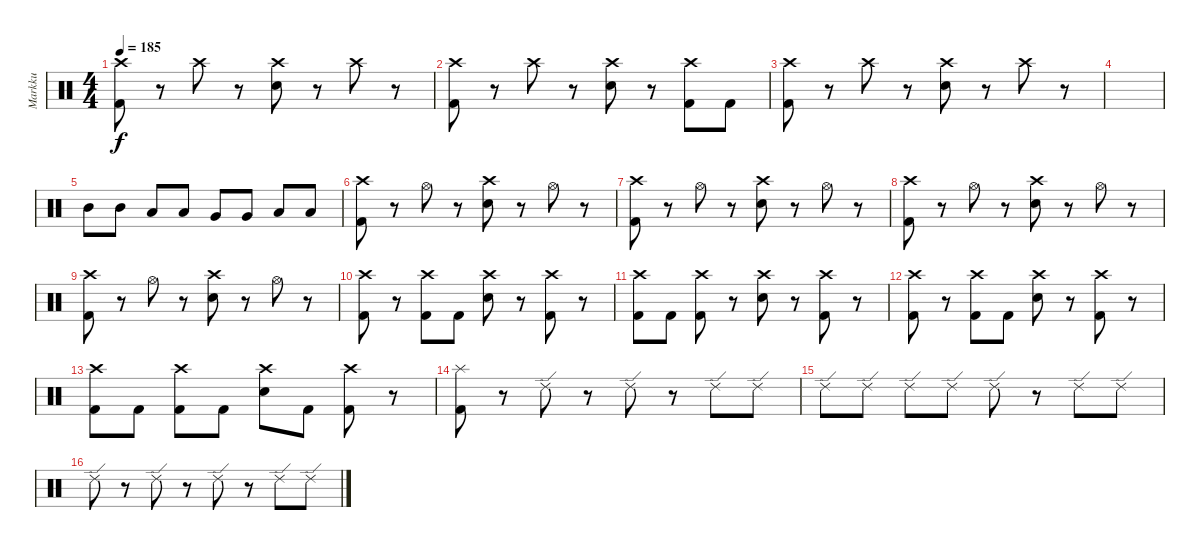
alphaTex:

\track ("Markku" "Markku") {instrument percussion}
\staff {score}
\articulation defaults
\ts (4 4)
\tempo 185
\clef neutral
\ks c
("Kick (hit) 2" "Crash high (hit)").8{dy f} r.8 "Crash high (hit)".8 r.8 ("Snare (hit) 2" "Crash high (hit)").8 r.8 "Crash high (hit)".8 r.8 |
("Kick (hit) 2" "Crash high (hit)").8 r.8 "Crash high (hit)".8 r.8 ("Snare (hit) 2" "Crash high (hit)").8 r.8 ("Kick (hit) 2" "Crash high (hit)").8 "Kick (hit) 2".8 |
("Kick (hit) 2" "Crash high (hit)").8 r.8 "Crash high (hit)".8 r.8 ("Snare (hit) 2" "Crash high (hit)").8 r.8 "Crash high (hit)".8 r.8 |
|
"Mid Tom (hit)".8 "Mid Tom (hit)".8 "Low Tom (hit)".8 "Low Tom (hit)".8 "Very Low Tom (hit)".8 "Very Low Tom (hit)".8 "Low Floor Tom (hit)".8 "Low Floor Tom (hit)".8 |
("Kick (hit) 2" "Crash high (hit)").8 r.8 "Hi-Hat (open)".8 r.8 ("Snare (hit) 2" "Crash high (hit)").8 r.8 "Hi-Hat (open)".8 r.8 |
("Kick (hit) 2" "Crash high (hit)").8 r.8 "Hi-Hat (open)".8 r.8 ("Snare (hit) 2" "Crash high (hit)").8 r.8 "Hi-Hat (open)".8 r.8 |
("Kick (hit) 2" "Crash high (hit)").8 r.8 "Hi-Hat (open)".8 r.8 ("Snare (hit) 2" "Crash high (hit)").8 r.8 "Hi-Hat (open)".8 r.8 |
("Kick (hit) 2" "Crash high (hit)").8 r.8 "Hi-Hat (open)".8 r.8 ("Snare (hit) 2" "Crash high (hit)").8 r.8 "Hi-Hat (open)".8 r.8 |
("Kick (hit) 2" "Crash high (hit)").8 r.8 ("Kick (hit) 2" "Crash high (hit)").8 "Kick (hit) 2".8 ("Snare (hit) 2" "Crash high (hit)").8 r.8 ("Kick (hit) 2" "Crash high (hit)").8 r.8 |
("Kick (hit) 2" "Crash high (hit)").8 "Kick (hit) 2".8 ("Kick (hit) 2" "Crash high (hit)").8 r.8 ("Snare (hit) 2" "Crash high (hit)").8 r.8 ("Kick (hit) 2" "Crash high (hit)").8 r.8 |
("Kick (hit) 2" "Crash high (hit)").8 r.8 ("Kick (hit) 2" "Crash high (hit)").8 "Kick (hit) 2".8 ("Snare (hit) 2" "Crash high (hit)").8 r.8 ("Kick (hit) 2" "Crash high (hit)").8 r.8 |
("Kick (hit) 2" "Crash high (hit)").8 "Kick (hit) 2".8 ("Kick (hit) 2" "Crash high (hit)").8 "Kick (hit) 2".8 ("Snare (hit) 2" "Crash high (hit)").8 "Kick (hit) 2".8 ("Kick (hit) 2" "Crash high (hit)").8 r.8 |
("Kick (hit) 2" "Splash (hit)").8 r.8 "Ride (edge) 2".8 r.8 "Ride (edge) 2".8 r.8 "Ride (edge) 2".8 "Ride (edge) 2".8 |
"Ride (edge) 2".8 "Ride (edge) 2".8 "Ride (edge) 2".8 "Ride (edge) 2".8 "Ride (edge) 2".8 r.8 "Ride (edge) 2".8 "Ride (edge) 2".8 |
"Ride (edge) 2".8 r.8 "Ride (edge) 2".8 r.8 "Ride (edge) 2".8 r.8 "Ride (edge) 2".8 "Ride (edge) 2".8
